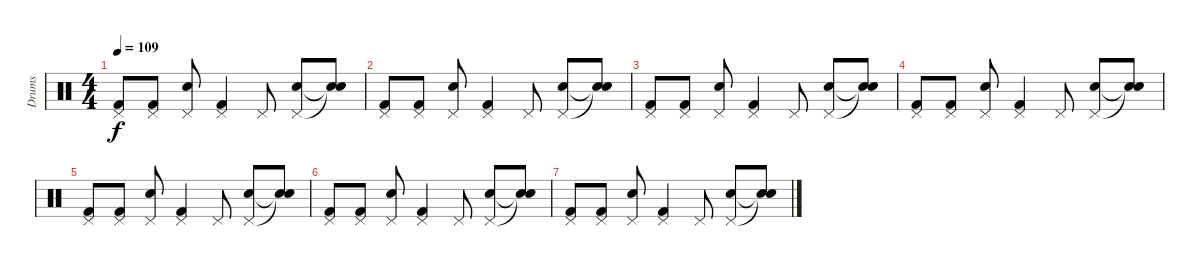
\track ("Drums" "Drums") {instrument percussion}
\staff {score}
\articulation defaults
\ts (4 4)
\tempo 109
\clef neutral
\ks c
("Pedal Hi-Hat (hit)" "Kick (hit) 2").8{dy f} ("Pedal Hi-Hat (hit)" "Kick (hit) 2").8 ("Pedal Hi-Hat (hit)" "Snare (hit) 2").8 ("Pedal Hi-Hat (hit)" "Kick (hit) 2").4 "Pedal Hi-Hat (hit)".8 ("Pedal Hi-Hat (hit)" "Snare (hit) 2").8 ("Snare (hit)"{t} "Snare (hit)"{t}).8 |
("Pedal Hi-Hat (hit)" "Kick (hit) 2").8 ("Pedal Hi-Hat (hit)" "Kick (hit) 2").8 ("Pedal Hi-Hat (hit)" "Snare (hit) 2").8 ("Pedal Hi-Hat (hit)" "Kick (hit) 2").4 "Pedal Hi-Hat (hit)".8 ("Pedal Hi-Hat (hit)" "Snare (hit) 2").8 ("Snare (hit)"{t} "Snare (hit)"{t}).8 |
("Pedal Hi-Hat (hit)" "Kick (hit) 2").8 ("Pedal Hi-Hat (hit)" "Kick (hit) 2").8 ("Pedal Hi-Hat (hit)" "Snare (hit) 2").8 ("Pedal Hi-Hat (hit)" "Kick (hit) 2").4 "Pedal Hi-Hat (hit)".8 ("Pedal Hi-Hat (hit)" "Snare (hit) 2").8 ("Snare (hit)"{t} "Snare (hit)"{t}).8 |
("Pedal Hi-Hat (hit)" "Kick (hit) 2").8 ("Pedal Hi-Hat (hit)" "Kick (hit) 2").8 ("Pedal Hi-Hat (hit)" "Snare (hit) 2").8 ("Pedal Hi-Hat (hit)" "Kick (hit) 2").4 "Pedal Hi-Hat (hit)".8 ("Pedal Hi-Hat (hit)" "Snare (hit) 2").8 ("Snare (hit)"{t} "Snare (hit)"{t}).8 |
("Pedal Hi-Hat (hit)" "Kick (hit) 2").8 ("Pedal Hi-Hat (hit)" "Kick (hit) 2").8 ("Pedal Hi-Hat (hit)" "Snare (hit) 2").8 ("Pedal Hi-Hat (hit)" "Kick (hit) 2").4 "Pedal Hi-Hat (hit)".8 ("Pedal Hi-Hat (hit)" "Snare (hit) 2").8 ("Snare (hit)"{t} "Snare (hit)"{t}).8 |
("Pedal Hi-Hat (hit)" "Kick (hit) 2").8 ("Pedal Hi-Hat (hit)" "Kick (hit) 2").8 ("Pedal Hi-Hat (hit)" "Snare (hit) 2").8 ("Pedal Hi-Hat (hit)" "Kick (hit) 2").4 "Pedal Hi-Hat (hit)".8 ("Pedal Hi-Hat (hit)" "Snare (hit) 2").8 ("Snare (hit)"{t} "Snare (hit)"{t}).8 |
("Pedal Hi-Hat (hit)" "Kick (hit) 2").8 ("Pedal Hi-Hat (hit)" "Kick (hit) 2").8 ("Pedal Hi-Hat (hit)" "Snare (hit) 2").8 ("Pedal Hi-Hat (hit)" "Kick (hit) 2").4 "Pedal Hi-Hat (hit)".8 ("Pedal Hi-Hat (hit)" "Snare (hit) 2").8 ("Snare (hit)"{t} "Snare (hit)"{t}).8
